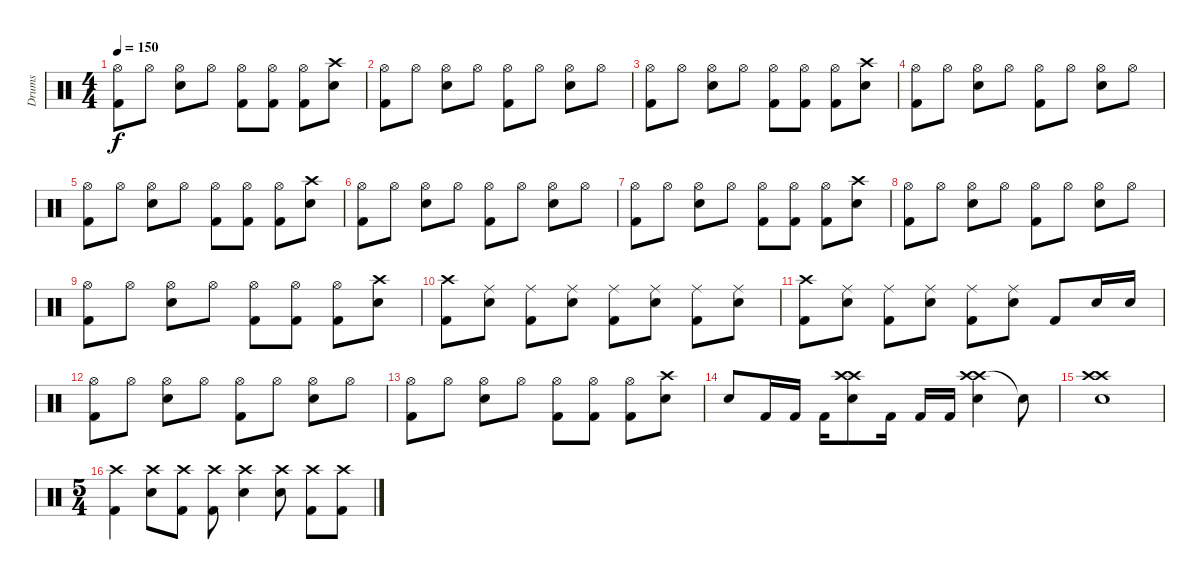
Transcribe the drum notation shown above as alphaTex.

\track ("Drums" "Drums") {instrument percussion}
\staff {score}
\articulation defaults
\ts (4 4)
\tempo 150
\clef neutral
\ks c
("Hi-Hat (open)" "Kick (hit) 2").8{dy f volume 16} "Hi-Hat (open)".8 ("Hi-Hat (open)" "Electric Snare (hit)").8 "Hi-Hat (open)".8 ("Hi-Hat (open)" "Kick (hit) 2").8 ("Hi-Hat (open)" "Kick (hit) 2").8 ("Hi-Hat (open)" "Kick (hit) 2").8 ("Crash high (hit)" "Electric Snare (hit)").8 |
("Hi-Hat (open)" "Kick (hit) 2").8{volume 16} "Hi-Hat (open)".8 ("Hi-Hat (open)" "Electric Snare (hit)").8 "Hi-Hat (open)".8 ("Hi-Hat (open)" "Kick (hit) 2").8 "Hi-Hat (open)".8 ("Hi-Hat (open)" "Electric Snare (hit)").8 "Hi-Hat (open)".8 |
("Hi-Hat (open)" "Kick (hit) 2").8{volume 16} "Hi-Hat (open)".8 ("Hi-Hat (open)" "Electric Snare (hit)").8 "Hi-Hat (open)".8 ("Hi-Hat (open)" "Kick (hit) 2").8 ("Hi-Hat (open)" "Kick (hit) 2").8 ("Hi-Hat (open)" "Kick (hit) 2").8 ("Crash high (hit)" "Electric Snare (hit)").8 |
("Hi-Hat (open)" "Kick (hit) 2").8{volume 16} "Hi-Hat (open)".8 ("Hi-Hat (open)" "Electric Snare (hit)").8 "Hi-Hat (open)".8 ("Hi-Hat (open)" "Kick (hit) 2").8 "Hi-Hat (open)".8 ("Hi-Hat (open)" "Electric Snare (hit)").8 "Hi-Hat (open)".8 |
("Hi-Hat (open)" "Kick (hit) 2").8{volume 16} "Hi-Hat (open)".8 ("Hi-Hat (open)" "Electric Snare (hit)").8 "Hi-Hat (open)".8 ("Hi-Hat (open)" "Kick (hit) 2").8 ("Hi-Hat (open)" "Kick (hit) 2").8 ("Hi-Hat (open)" "Kick (hit) 2").8 ("Crash high (hit)" "Electric Snare (hit)").8 |
("Hi-Hat (open)" "Kick (hit) 2").8{volume 16} "Hi-Hat (open)".8 ("Hi-Hat (open)" "Electric Snare (hit)").8 "Hi-Hat (open)".8 ("Hi-Hat (open)" "Kick (hit) 2").8 "Hi-Hat (open)".8 ("Hi-Hat (open)" "Electric Snare (hit)").8 "Hi-Hat (open)".8 |
("Hi-Hat (open)" "Kick (hit) 2").8{volume 16} "Hi-Hat (open)".8 ("Hi-Hat (open)" "Electric Snare (hit)").8 "Hi-Hat (open)".8 ("Hi-Hat (open)" "Kick (hit) 2").8 ("Hi-Hat (open)" "Kick (hit) 2").8 ("Hi-Hat (open)" "Kick (hit) 2").8 ("Crash high (hit)" "Electric Snare (hit)").8 |
("Hi-Hat (open)" "Kick (hit) 2").8{volume 16} "Hi-Hat (open)".8 ("Hi-Hat (open)" "Electric Snare (hit)").8 "Hi-Hat (open)".8 ("Hi-Hat (open)" "Kick (hit) 2").8 "Hi-Hat (open)".8 ("Hi-Hat (open)" "Electric Snare (hit)").8 "Hi-Hat (open)".8 |
("Hi-Hat (open)" "Kick (hit) 2").8{volume 16} "Hi-Hat (open)".8 ("Hi-Hat (open)" "Electric Snare (hit)").8 "Hi-Hat (open)".8 ("Hi-Hat (open)" "Kick (hit) 2").8 ("Hi-Hat (open)" "Kick (hit) 2").8 ("Hi-Hat (open)" "Kick (hit) 2").8 ("Crash high (hit)" "Electric Snare (hit)").8 |
("Crash high (hit)" "Kick (hit) 2").8 ("Ride (middle)" "Electric Snare (hit)").8 ("Ride (middle)" "Kick (hit) 2").8 ("Ride (middle)" "Electric Snare (hit)").8 ("Ride (middle)" "Kick (hit) 2").8 ("Ride (middle)" "Electric Snare (hit)").8 ("Ride (middle)" "Kick (hit) 2").8 ("Ride (middle)" "Electric Snare (hit)").8 |
("Crash high (hit)" "Kick (hit) 2").8 ("Ride (middle)" "Electric Snare (hit)").8 ("Ride (middle)" "Kick (hit) 2").8 ("Ride (middle)" "Electric Snare (hit)").8 ("Ride (middle)" "Kick (hit) 2").8 ("Ride (middle)" "Electric Snare (hit)").8 "Kick (hit) 2".8 "Electric Snare (hit)".16 "Electric Snare (hit)".16 |
("Hi-Hat (open)" "Kick (hit) 2").8{volume 16} "Hi-Hat (open)".8 ("Hi-Hat (open)" "Electric Snare (hit)").8 "Hi-Hat (open)".8 ("Hi-Hat (open)" "Kick (hit) 2").8 "Hi-Hat (open)".8 ("Hi-Hat (open)" "Electric Snare (hit)").8 "Hi-Hat (open)".8 |
("Hi-Hat (open)" "Kick (hit) 2").8{volume 16} "Hi-Hat (open)".8 ("Hi-Hat (open)" "Electric Snare (hit)").8 "Hi-Hat (open)".8 ("Hi-Hat (open)" "Kick (hit) 2").8 ("Hi-Hat (open)" "Kick (hit) 2").8 ("Hi-Hat (open)" "Kick (hit) 2").8 ("Crash high (hit)" "Electric Snare (hit)").8 |
"Electric Snare (hit)".8 "Kick (hit) 2".16 "Kick (hit) 2".16 "Kick (hit) 2".16 ("Crash high (hit)" "Crash high (hit)" "Electric Snare (hit)").8 "Kick (hit) 2".16 "Kick (hit) 2".16 "Kick (hit) 2".16 ("Crash high (hit)" "Crash high (hit)" "Electric Snare (hit)").4 "Snare (hit)"{t}.8 |
("Crash high (hit)" "Crash high (hit)" "Electric Snare (hit)").1 |
\ts (5 4)
("Crash high (hit)" "Kick (hit) 2").4 ("Crash high (hit)" "Electric Snare (hit)").8 ("Crash high (hit)" "Kick (hit) 2").8 ("Crash high (hit)" "Kick (hit) 2").8 ("Crash high (hit)" "Electric Snare (hit)").4 ("Crash high (hit)" "Electric Snare (hit)").8 ("Crash high (hit)" "Kick (hit) 2").8 ("Crash high (hit)" "Kick (hit) 2").8
